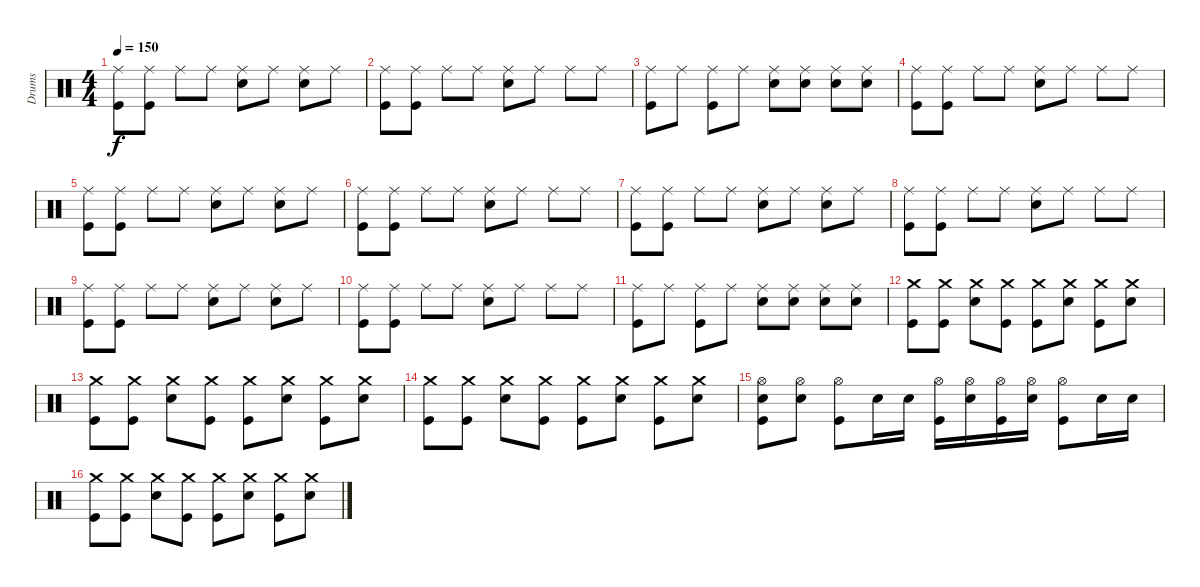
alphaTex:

\track ("Drums" "Drums") {instrument percussion}
\staff {score}
\articulation defaults
\ts (4 4)
\tempo 150
\clef neutral
\ks c
("Ride (middle)" "Kick (hit)").8{dy f} ("Ride (middle)" "Kick (hit)").8 "Ride (middle)".8 "Ride (middle)".8 ("Ride (middle)" "Electric Snare (hit)").8 "Ride (middle)".8 ("Ride (middle)" "Electric Snare (hit)").8 "Ride (middle)".8 |
("Ride (middle)" "Kick (hit)").8 ("Ride (middle)" "Kick (hit)").8 "Ride (middle)".8 "Ride (middle)".8 ("Ride (middle)" "Electric Snare (hit)").8 "Ride (middle)".8 "Ride (middle)".8 "Ride (middle)".8 |
("Ride (middle)" "Kick (hit)").8 "Ride (middle)".8 ("Ride (middle)" "Kick (hit)").8 "Ride (middle)".8 ("Ride (middle)" "Electric Snare (hit)").8 ("Ride (middle)" "Electric Snare (hit)").8 ("Ride (middle)" "Electric Snare (hit)").8 ("Ride (middle)" "Electric Snare (hit)").8 |
("Ride (middle)" "Kick (hit)").8 ("Ride (middle)" "Kick (hit)").8 "Ride (middle)".8 "Ride (middle)".8 ("Ride (middle)" "Electric Snare (hit)").8 "Ride (middle)".8 "Ride (middle)".8 "Ride (middle)".8 |
("Ride (middle)" "Kick (hit)").8 ("Ride (middle)" "Kick (hit)").8 "Ride (middle)".8 "Ride (middle)".8 ("Ride (middle)" "Electric Snare (hit)").8 "Ride (middle)".8 ("Ride (middle)" "Electric Snare (hit)").8 "Ride (middle)".8 |
("Ride (middle)" "Kick (hit)").8 ("Ride (middle)" "Kick (hit)").8 "Ride (middle)".8 "Ride (middle)".8 ("Ride (middle)" "Electric Snare (hit)").8 "Ride (middle)".8 "Ride (middle)".8 "Ride (middle)".8 |
("Ride (middle)" "Kick (hit)").8 ("Ride (middle)" "Kick (hit)").8 "Ride (middle)".8 "Ride (middle)".8 ("Ride (middle)" "Electric Snare (hit)").8 "Ride (middle)".8 ("Ride (middle)" "Electric Snare (hit)").8 "Ride (middle)".8 |
("Ride (middle)" "Kick (hit)").8 ("Ride (middle)" "Kick (hit)").8 "Ride (middle)".8 "Ride (middle)".8 ("Ride (middle)" "Electric Snare (hit)").8 "Ride (middle)".8 "Ride (middle)".8 "Ride (middle)".8 |
("Ride (middle)" "Kick (hit)").8 ("Ride (middle)" "Kick (hit)").8 "Ride (middle)".8 "Ride (middle)".8 ("Ride (middle)" "Electric Snare (hit)").8 "Ride (middle)".8 ("Ride (middle)" "Electric Snare (hit)").8 "Ride (middle)".8 |
("Ride (middle)" "Kick (hit)").8 ("Ride (middle)" "Kick (hit)").8 "Ride (middle)".8 "Ride (middle)".8 ("Ride (middle)" "Electric Snare (hit)").8 "Ride (middle)".8 "Ride (middle)".8 "Ride (middle)".8 |
("Ride (middle)" "Kick (hit)").8 "Ride (middle)".8 ("Ride (middle)" "Kick (hit)").8 "Ride (middle)".8 ("Ride (middle)" "Electric Snare (hit)").8 ("Ride (middle)" "Electric Snare (hit)").8 ("Ride (middle)" "Electric Snare (hit)").8 ("Ride (middle)" "Electric Snare (hit)").8 |
("Crash medium (hit)" "Kick (hit)").8 ("Crash medium (hit)" "Kick (hit)").8 ("Crash medium (hit)" "Electric Snare (hit)").8 ("Crash medium (hit)" "Kick (hit)").8 ("Crash medium (hit)" "Kick (hit)").8 ("Crash medium (hit)" "Electric Snare (hit)").8 ("Crash medium (hit)" "Kick (hit)").8 ("Crash medium (hit)" "Electric Snare (hit)").8 |
("Crash medium (hit)" "Kick (hit)").8 ("Crash medium (hit)" "Kick (hit)").8 ("Crash medium (hit)" "Electric Snare (hit)").8 ("Crash medium (hit)" "Kick (hit)").8 ("Crash medium (hit)" "Kick (hit)").8 ("Crash medium (hit)" "Electric Snare (hit)").8 ("Crash medium (hit)" "Kick (hit)").8 ("Crash medium (hit)" "Electric Snare (hit)").8 |
("Crash medium (hit)" "Kick (hit)").8 ("Crash medium (hit)" "Kick (hit)").8 ("Crash medium (hit)" "Electric Snare (hit)").8 ("Crash medium (hit)" "Kick (hit)").8 ("Crash medium (hit)" "Kick (hit)").8 ("Crash medium (hit)" "Electric Snare (hit)").8 ("Crash medium (hit)" "Kick (hit)").8 ("Crash medium (hit)" "Electric Snare (hit)").8 |
("Hi-Hat (open)" "Snare (hit) 2" "Kick (hit)").8 ("Hi-Hat (open)" "Electric Snare (hit)").8 ("Hi-Hat (open)" "Kick (hit)").8 "Electric Snare (hit)".16 "Electric Snare (hit)".16 ("Hi-Hat (open)" "Kick (hit)").16 ("Hi-Hat (open)" "Electric Snare (hit)").16 ("Hi-Hat (open)" "Kick (hit)").16 ("Hi-Hat (open)" "Electric Snare (hit)").16 ("Hi-Hat (open)" "Kick (hit)").8 "Electric Snare (hit)".16 "Electric Snare (hit)".16 |
("Crash medium (hit)" "Kick (hit)").8 ("Crash medium (hit)" "Kick (hit)").8 ("Crash medium (hit)" "Electric Snare (hit)").8 ("Crash medium (hit)" "Kick (hit)").8 ("Crash medium (hit)" "Kick (hit)").8 ("Crash medium (hit)" "Electric Snare (hit)").8 ("Crash medium (hit)" "Kick (hit)").8 ("Crash medium (hit)" "Electric Snare (hit)").8
